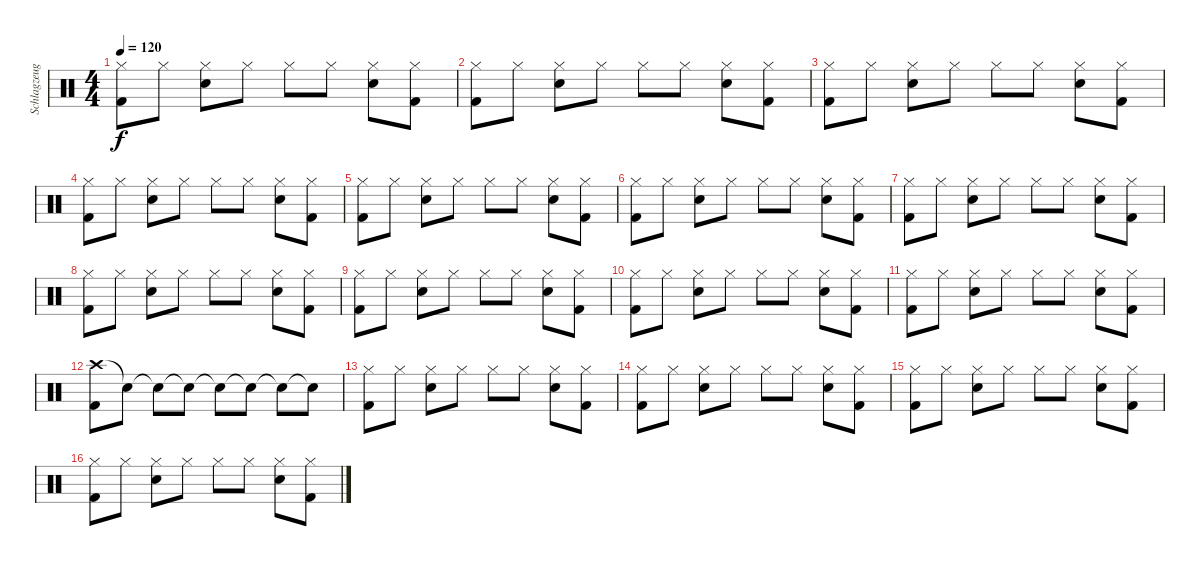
\track ("Schlagzeug[Gustav Schäfer]" "Schlagzeug") {instrument percussion}
\staff {score}
\articulation defaults
\ts (4 4)
\tempo 120
\clef neutral
\ks c
("Kick (hit) 2" "Hi-Hat (closed)").8{dy f} "Hi-Hat (closed)".8 ("Hi-Hat (closed)" "Snare (hit) 2").8 "Hi-Hat (closed)".8 "Hi-Hat (closed)".8 "Hi-Hat (closed)".8 ("Snare (hit) 2" "Hi-Hat (closed)").8 ("Hi-Hat (closed)" "Kick (hit) 2").8 |
("Kick (hit) 2" "Hi-Hat (closed)").8 "Hi-Hat (closed)".8 ("Hi-Hat (closed)" "Snare (hit) 2").8 "Hi-Hat (closed)".8 "Hi-Hat (closed)".8 "Hi-Hat (closed)".8 ("Snare (hit) 2" "Hi-Hat (closed)").8 ("Hi-Hat (closed)" "Kick (hit) 2").8 |
("Kick (hit) 2" "Hi-Hat (closed)").8 "Hi-Hat (closed)".8 ("Hi-Hat (closed)" "Snare (hit) 2").8 "Hi-Hat (closed)".8 "Hi-Hat (closed)".8 "Hi-Hat (closed)".8 ("Snare (hit) 2" "Hi-Hat (closed)").8 ("Hi-Hat (closed)" "Kick (hit) 2").8 |
("Kick (hit) 2" "Hi-Hat (closed)").8 "Hi-Hat (closed)".8 ("Hi-Hat (closed)" "Snare (hit) 2").8 "Hi-Hat (closed)".8 "Hi-Hat (closed)".8 "Hi-Hat (closed)".8 ("Snare (hit) 2" "Hi-Hat (closed)").8 ("Hi-Hat (closed)" "Kick (hit) 2").8 |
("Kick (hit) 2" "Hi-Hat (closed)").8 "Hi-Hat (closed)".8 ("Hi-Hat (closed)" "Snare (hit) 2").8 "Hi-Hat (closed)".8 "Hi-Hat (closed)".8 "Hi-Hat (closed)".8 ("Snare (hit) 2" "Hi-Hat (closed)").8 ("Hi-Hat (closed)" "Kick (hit) 2").8 |
("Kick (hit) 2" "Hi-Hat (closed)").8 "Hi-Hat (closed)".8 ("Hi-Hat (closed)" "Snare (hit) 2").8 "Hi-Hat (closed)".8 "Hi-Hat (closed)".8 "Hi-Hat (closed)".8 ("Snare (hit) 2" "Hi-Hat (closed)").8 ("Hi-Hat (closed)" "Kick (hit) 2").8 |
("Kick (hit) 2" "Hi-Hat (closed)").8 "Hi-Hat (closed)".8 ("Hi-Hat (closed)" "Snare (hit) 2").8 "Hi-Hat (closed)".8 "Hi-Hat (closed)".8 "Hi-Hat (closed)".8 ("Snare (hit) 2" "Hi-Hat (closed)").8 ("Hi-Hat (closed)" "Kick (hit) 2").8 |
("Kick (hit) 2" "Hi-Hat (closed)").8 "Hi-Hat (closed)".8 ("Hi-Hat (closed)" "Snare (hit) 2").8 "Hi-Hat (closed)".8 "Hi-Hat (closed)".8 "Hi-Hat (closed)".8 ("Snare (hit) 2" "Hi-Hat (closed)").8 ("Hi-Hat (closed)" "Kick (hit) 2").8 |
("Kick (hit) 2" "Hi-Hat (closed)").8 "Hi-Hat (closed)".8 ("Hi-Hat (closed)" "Snare (hit) 2").8 "Hi-Hat (closed)".8 "Hi-Hat (closed)".8 "Hi-Hat (closed)".8 ("Snare (hit) 2" "Hi-Hat (closed)").8 ("Hi-Hat (closed)" "Kick (hit) 2").8 |
("Kick (hit) 2" "Hi-Hat (closed)").8 "Hi-Hat (closed)".8 ("Hi-Hat (closed)" "Snare (hit) 2").8 "Hi-Hat (closed)".8 "Hi-Hat (closed)".8 "Hi-Hat (closed)".8 ("Snare (hit) 2" "Hi-Hat (closed)").8 ("Hi-Hat (closed)" "Kick (hit) 2").8 |
("Kick (hit) 2" "Hi-Hat (closed)").8 "Hi-Hat (closed)".8 ("Hi-Hat (closed)" "Snare (hit) 2").8 "Hi-Hat (closed)".8 "Hi-Hat (closed)".8 "Hi-Hat (closed)".8 ("Snare (hit) 2" "Hi-Hat (closed)").8 ("Hi-Hat (closed)" "Kick (hit) 2").8 |
("Crash high (hit)" "Kick (hit) 2").8 "Snare (hit)"{t}.8 "Snare (hit)"{t}.8 "Snare (hit)"{t}.8 "Snare (hit)"{t}.8 "Snare (hit)"{t}.8 "Snare (hit)"{t}.8 "Snare (hit)"{t}.8 |
("Kick (hit) 2" "Hi-Hat (closed)").8 "Hi-Hat (closed)".8 ("Hi-Hat (closed)" "Snare (hit) 2").8 "Hi-Hat (closed)".8 "Hi-Hat (closed)".8 "Hi-Hat (closed)".8 ("Snare (hit) 2" "Hi-Hat (closed)").8 ("Hi-Hat (closed)" "Kick (hit) 2").8 |
("Kick (hit) 2" "Hi-Hat (closed)").8 "Hi-Hat (closed)".8 ("Hi-Hat (closed)" "Snare (hit) 2").8 "Hi-Hat (closed)".8 "Hi-Hat (closed)".8 "Hi-Hat (closed)".8 ("Snare (hit) 2" "Hi-Hat (closed)").8 ("Hi-Hat (closed)" "Kick (hit) 2").8 |
("Kick (hit) 2" "Hi-Hat (closed)").8 "Hi-Hat (closed)".8 ("Hi-Hat (closed)" "Snare (hit) 2").8 "Hi-Hat (closed)".8 "Hi-Hat (closed)".8 "Hi-Hat (closed)".8 ("Snare (hit) 2" "Hi-Hat (closed)").8 ("Hi-Hat (closed)" "Kick (hit) 2").8 |
("Kick (hit) 2" "Hi-Hat (closed)").8 "Hi-Hat (closed)".8 ("Hi-Hat (closed)" "Snare (hit) 2").8 "Hi-Hat (closed)".8 "Hi-Hat (closed)".8 "Hi-Hat (closed)".8 ("Snare (hit) 2" "Hi-Hat (closed)").8 ("Hi-Hat (closed)" "Kick (hit) 2").8
